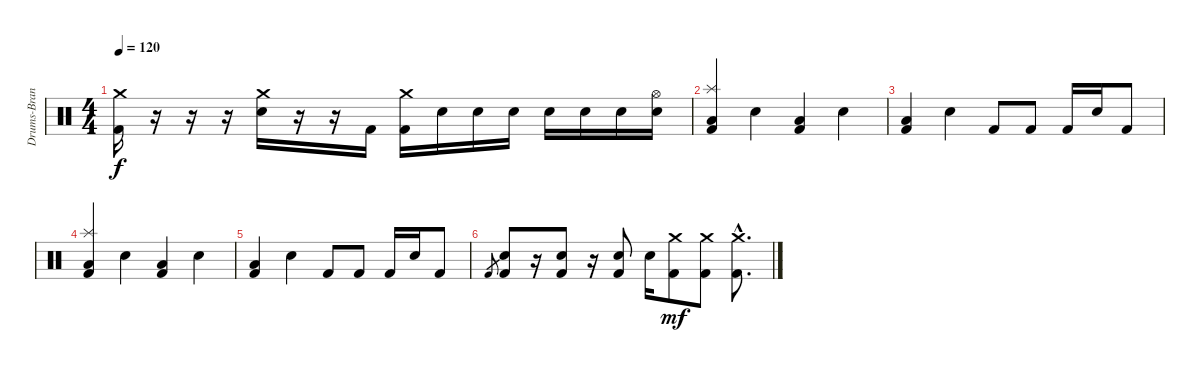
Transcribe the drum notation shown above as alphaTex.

\track ("Drums-Branden Steineckert" "Drums-Bran") {instrument percussion}
\staff {score}
\articulation defaults
\ts (4 4)
\tempo 120
\clef neutral
\ks c
("Crash medium (hit)" "Kick (hit) 2").16{dy f} r.16 r.16 r.16 ("Crash medium (hit)" "Electric Snare (hit)").16 r.16 r.16 "Kick (hit) 2".16 ("Crash medium (hit)" "Kick (hit) 2").16 "Electric Snare (hit)".16 "Electric Snare (hit)".16 "Electric Snare (hit)".16 "Electric Snare (hit)".16 "Electric Snare (hit)".16 "Electric Snare (hit)".16 ("Hi-Hat (open)" "Electric Snare (hit)").16 |
("Splash (hit)" "Kick (hit) 2" "Low Floor Tom (hit)").4 "Electric Snare (hit)".4 ("Kick (hit) 2" "Low Floor Tom (hit)").4 "Electric Snare (hit)".4 |
("Kick (hit) 2" "Low Floor Tom (hit)").4 "Electric Snare (hit)".4 "Kick (hit) 2".8 "Kick (hit) 2".8 "Kick (hit) 2".16 "Electric Snare (hit)".16 "Kick (hit) 2".8 |
("Splash (hit)" "Kick (hit) 2" "Low Floor Tom (hit)").4 "Electric Snare (hit)".4 ("Kick (hit) 2" "Low Floor Tom (hit)").4 "Electric Snare (hit)".4 |
("Kick (hit) 2" "Low Floor Tom (hit)").4 "Electric Snare (hit)".4 "Kick (hit) 2".8 "Kick (hit) 2".8 "Kick (hit) 2".16 "Electric Snare (hit)".16 "Kick (hit) 2".8 |
"Kick (hit) 2".8{gr} ("Kick (hit) 2" "Electric Snare (hit)").8 r.16 ("Kick (hit) 2" "Electric Snare (hit)").8 r.16 ("Kick (hit) 2" "Electric Snare (hit)").8 "Electric Snare (hit)".16 ("Kick (hit) 2" "Crash medium (hit)").8{dy mf} ("Kick (hit) 2" "Crash medium (hit)").8 ("Kick (hit) 2"{hac} "Crash medium (hit)"{hac}).8{d}
